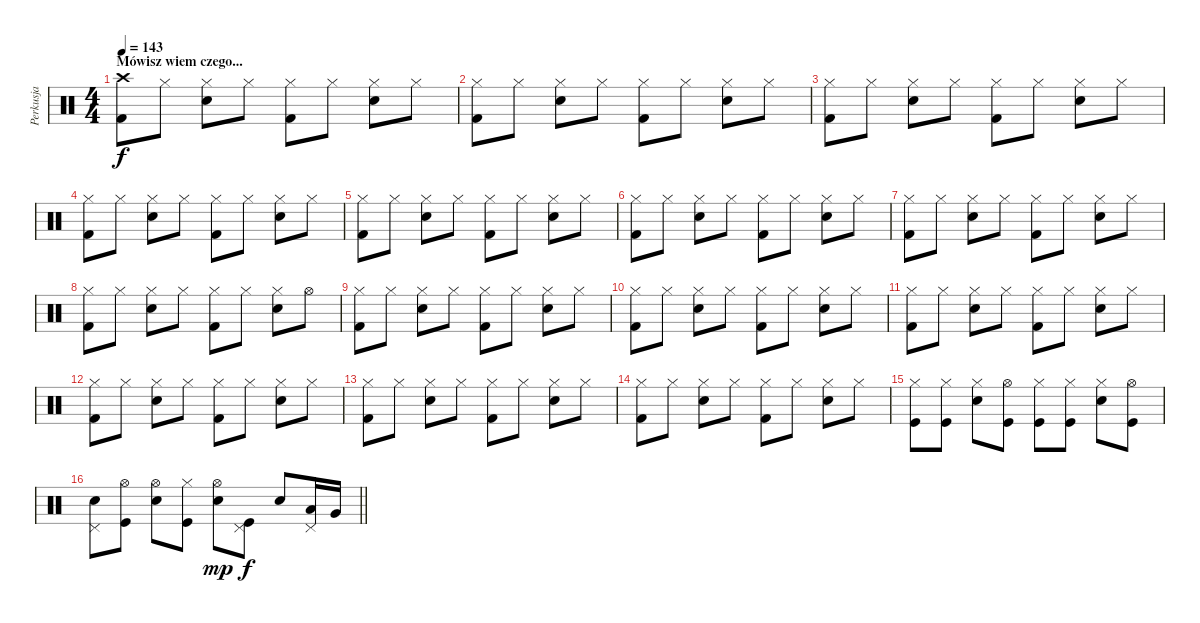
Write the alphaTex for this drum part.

\track ("Perkusja" "Perkusja") {instrument percussion}
\staff {score}
\articulation defaults
\ts (4 4)
\section ("" "Mówisz wiem czego...")
\tempo 143
\clef neutral
\ks c
("Crash high (hit)" "Kick (hit) 2").8{dy f} "Hi-Hat (closed)".8 ("Hi-Hat (closed)" "Electric Snare (hit)").8 "Hi-Hat (closed)".8 ("Hi-Hat (closed)" "Kick (hit) 2").8 "Hi-Hat (closed)".8 ("Hi-Hat (closed)" "Electric Snare (hit)").8 "Hi-Hat (closed)".8 |
("Hi-Hat (closed)" "Kick (hit) 2").8 "Hi-Hat (closed)".8 ("Hi-Hat (closed)" "Electric Snare (hit)").8 "Hi-Hat (closed)".8 ("Hi-Hat (closed)" "Kick (hit) 2").8 "Hi-Hat (closed)".8 ("Hi-Hat (closed)" "Electric Snare (hit)").8 "Hi-Hat (closed)".8 |
("Hi-Hat (closed)" "Kick (hit) 2").8 "Hi-Hat (closed)".8 ("Hi-Hat (closed)" "Electric Snare (hit)").8 "Hi-Hat (closed)".8 ("Hi-Hat (closed)" "Kick (hit) 2").8 "Hi-Hat (closed)".8 ("Hi-Hat (closed)" "Electric Snare (hit)").8 "Hi-Hat (closed)".8 |
("Hi-Hat (closed)" "Kick (hit) 2").8 "Hi-Hat (closed)".8 ("Hi-Hat (closed)" "Electric Snare (hit)").8 "Hi-Hat (closed)".8 ("Hi-Hat (closed)" "Kick (hit) 2").8 "Hi-Hat (closed)".8 ("Hi-Hat (closed)" "Electric Snare (hit)").8 "Hi-Hat (closed)".8 |
("Hi-Hat (closed)" "Kick (hit) 2").8 "Hi-Hat (closed)".8 ("Hi-Hat (closed)" "Electric Snare (hit)").8 "Hi-Hat (closed)".8 ("Hi-Hat (closed)" "Kick (hit) 2").8 "Hi-Hat (closed)".8 ("Hi-Hat (closed)" "Electric Snare (hit)").8 "Hi-Hat (closed)".8 |
("Hi-Hat (closed)" "Kick (hit) 2").8 "Hi-Hat (closed)".8 ("Hi-Hat (closed)" "Electric Snare (hit)").8 "Hi-Hat (closed)".8 ("Hi-Hat (closed)" "Kick (hit) 2").8 "Hi-Hat (closed)".8 ("Hi-Hat (closed)" "Electric Snare (hit)").8 "Hi-Hat (closed)".8 |
("Hi-Hat (closed)" "Kick (hit) 2").8 "Hi-Hat (closed)".8 ("Hi-Hat (closed)" "Electric Snare (hit)").8 "Hi-Hat (closed)".8 ("Hi-Hat (closed)" "Kick (hit) 2").8 "Hi-Hat (closed)".8 ("Hi-Hat (closed)" "Electric Snare (hit)").8 "Hi-Hat (closed)".8 |
("Hi-Hat (closed)" "Kick (hit) 2").8 "Hi-Hat (closed)".8 ("Hi-Hat (closed)" "Electric Snare (hit)").8 "Hi-Hat (closed)".8 ("Hi-Hat (closed)" "Kick (hit) 2").8 "Hi-Hat (closed)".8 ("Hi-Hat (closed)" "Electric Snare (hit)").8 "Hi-Hat (open)".8 |
("Hi-Hat (closed)" "Kick (hit) 2").8 "Hi-Hat (closed)".8 ("Hi-Hat (closed)" "Electric Snare (hit)").8 "Hi-Hat (closed)".8 ("Hi-Hat (closed)" "Kick (hit) 2").8 "Hi-Hat (closed)".8 ("Hi-Hat (closed)" "Electric Snare (hit)").8 "Hi-Hat (closed)".8 |
("Hi-Hat (closed)" "Kick (hit) 2").8 "Hi-Hat (closed)".8 ("Hi-Hat (closed)" "Electric Snare (hit)").8 "Hi-Hat (closed)".8 ("Hi-Hat (closed)" "Kick (hit) 2").8 "Hi-Hat (closed)".8 ("Hi-Hat (closed)" "Electric Snare (hit)").8 "Hi-Hat (closed)".8 |
("Hi-Hat (closed)" "Kick (hit) 2").8 "Hi-Hat (closed)".8 ("Hi-Hat (closed)" "Electric Snare (hit)").8 "Hi-Hat (closed)".8 ("Hi-Hat (closed)" "Kick (hit) 2").8 "Hi-Hat (closed)".8 ("Hi-Hat (closed)" "Electric Snare (hit)").8 "Hi-Hat (closed)".8 |
("Hi-Hat (closed)" "Kick (hit) 2").8 "Hi-Hat (closed)".8 ("Hi-Hat (closed)" "Electric Snare (hit)").8 "Hi-Hat (closed)".8 ("Hi-Hat (closed)" "Kick (hit) 2").8 "Hi-Hat (closed)".8 ("Hi-Hat (closed)" "Electric Snare (hit)").8 "Hi-Hat (closed)".8 |
("Hi-Hat (closed)" "Kick (hit) 2").8 "Hi-Hat (closed)".8 ("Hi-Hat (closed)" "Electric Snare (hit)").8 "Hi-Hat (closed)".8 ("Hi-Hat (closed)" "Kick (hit) 2").8 "Hi-Hat (closed)".8 ("Hi-Hat (closed)" "Electric Snare (hit)").8 "Hi-Hat (closed)".8 |
("Hi-Hat (closed)" "Kick (hit) 2").8 "Hi-Hat (closed)".8 ("Hi-Hat (closed)" "Electric Snare (hit)").8 "Hi-Hat (closed)".8 ("Hi-Hat (closed)" "Kick (hit) 2").8 "Hi-Hat (closed)".8 ("Hi-Hat (closed)" "Electric Snare (hit)").8 "Hi-Hat (closed)".8 |
("Hi-Hat (closed)" "Kick (hit)").8 ("Hi-Hat (closed)" "Kick (hit)").8 ("Hi-Hat (closed)" "Electric Snare (hit)").8 ("Hi-Hat (open)" "Kick (hit)").8 ("Hi-Hat (closed)" "Kick (hit)").8 ("Hi-Hat (closed)" "Kick (hit)").8 ("Hi-Hat (closed)" "Electric Snare (hit)").8 ("Hi-Hat (open)" "Kick (hit)").8 |
\barLineRight lightlight
("Pedal Hi-Hat (hit)" "Electric Snare (hit)").8 ("Hi-Hat (open)" "Kick (hit)").8 ("Hi-Hat (open)" "Electric Snare (hit)").8 ("Hi-Hat (closed)" "Kick (hit)").8 ("Hi-Hat (open)" "Electric Snare (hit)").8{dy mp} ("Pedal Hi-Hat (hit)" "Kick (hit)").8{dy f} "Electric Snare (hit)".8 ("Pedal Hi-Hat (hit)" "Low Tom (hit)").16 "Very Low Tom (hit)".16
